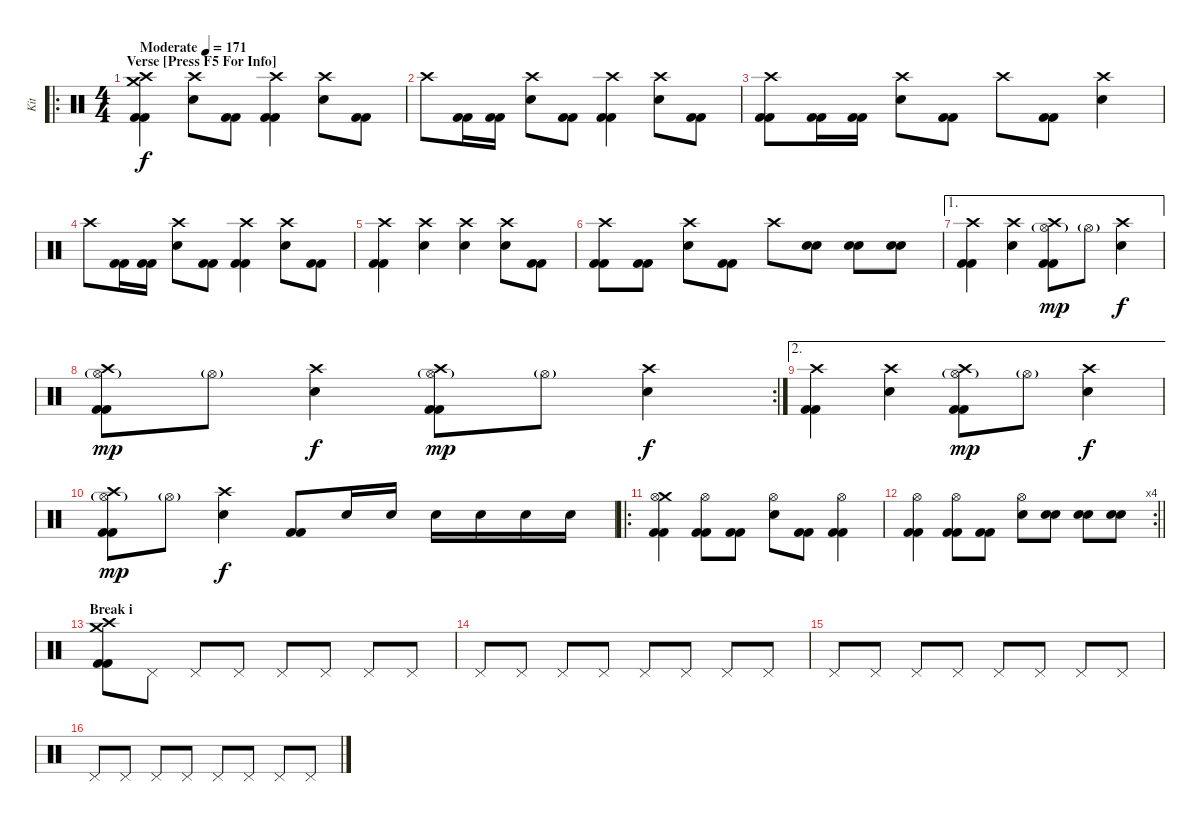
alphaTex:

\track ("Kit" "Kit") {instrument percussion}
\staff {score}
\articulation defaults
\ro
\ts (4 4)
\section ("" "Verse [Press F5 For Info]")
\tempo (171 "Moderate")
\clef neutral
\ks c
("Crash medium (hit)" "Crash high (hit)" "Kick (hit) 2" "Kick (hit) 2").4{dy f} ("Crash high (hit)" "Electric Snare (hit)").8 ("Kick (hit) 2" "Kick (hit) 2").8 ("Crash high (hit)" "Kick (hit) 2" "Kick (hit) 2").4 ("Crash high (hit)" "Electric Snare (hit)").8 ("Kick (hit) 2" "Kick (hit) 2").8 |
"Crash high (hit)".8 ("Kick (hit) 2" "Kick (hit) 2").16 ("Kick (hit) 2" "Kick (hit) 2").16 ("Crash high (hit)" "Electric Snare (hit)").8 ("Kick (hit) 2" "Kick (hit) 2").8 ("Crash high (hit)" "Kick (hit) 2" "Kick (hit) 2").4 ("Crash high (hit)" "Electric Snare (hit)").8 ("Kick (hit) 2" "Kick (hit) 2").8 |
("Crash high (hit)" "Kick (hit) 2" "Kick (hit) 2").8 ("Kick (hit) 2" "Kick (hit) 2").16 ("Kick (hit) 2" "Kick (hit) 2").16 ("Crash high (hit)" "Electric Snare (hit)").8 ("Kick (hit) 2" "Kick (hit) 2").8 "Crash high (hit)".8 ("Kick (hit) 2" "Kick (hit) 2").8 ("Crash high (hit)" "Electric Snare (hit)").4 |
"Crash high (hit)".8 ("Kick (hit) 2" "Kick (hit) 2").16 ("Kick (hit) 2" "Kick (hit) 2").16 ("Crash high (hit)" "Electric Snare (hit)").8 ("Kick (hit) 2" "Kick (hit) 2").8 ("Crash high (hit)" "Kick (hit) 2" "Kick (hit) 2").4 ("Crash high (hit)" "Electric Snare (hit)").8 ("Kick (hit) 2" "Kick (hit) 2").8 |
("Crash high (hit)" "Kick (hit) 2" "Kick (hit) 2").4 ("Crash high (hit)" "Electric Snare (hit)").4 ("Crash high (hit)" "Electric Snare (hit)").4 ("Crash high (hit)" "Electric Snare (hit)").8 ("Kick (hit) 2" "Kick (hit) 2").8 |
("Crash high (hit)" "Kick (hit) 2" "Kick (hit) 2").8 ("Kick (hit) 2" "Kick (hit) 2").8 ("Crash high (hit)" "Electric Snare (hit)").8 ("Kick (hit) 2" "Kick (hit) 2").8 "Crash high (hit)".8 ("Snare (hit) 2" "Electric Snare (hit)").8{bd 120} ("Snare (hit) 2" "Electric Snare (hit)").8{bd 120} ("Snare (hit) 2" "Electric Snare (hit)").8{bd 120} |
\ae 1
("Crash high (hit)" "Kick (hit) 2" "Kick (hit) 2").4 ("Crash high (hit)" "Electric Snare (hit)").4 ("Crash high (hit)" "Hi-Hat (open)"{g} "Kick (hit) 2" "Kick (hit) 2").8{dy mp} "Hi-Hat (open)"{g}.8 ("Crash high (hit)" "Electric Snare (hit)").4{dy f} |
\rc 2
("Crash high (hit)" "Hi-Hat (open)"{g} "Kick (hit) 2" "Kick (hit) 2").8{dy mp} "Hi-Hat (open)"{g}.8 ("Crash high (hit)" "Electric Snare (hit)").4{dy f} ("Crash high (hit)" "Hi-Hat (open)"{g} "Kick (hit) 2" "Kick (hit) 2").8{dy mp} "Hi-Hat (open)"{g}.8 ("Crash high (hit)" "Electric Snare (hit)").4{dy f} |
\ae 2
("Crash high (hit)" "Kick (hit) 2" "Kick (hit) 2").4 ("Crash high (hit)" "Electric Snare (hit)").4 ("Crash high (hit)" "Hi-Hat (open)"{g} "Kick (hit) 2" "Kick (hit) 2").8{dy mp} "Hi-Hat (open)"{g}.8 ("Crash high (hit)" "Electric Snare (hit)").4{dy f} |
("Crash high (hit)" "Hi-Hat (open)"{g} "Kick (hit) 2" "Kick (hit) 2").8{dy mp} "Hi-Hat (open)"{g}.8 ("Crash high (hit)" "Electric Snare (hit)").4{dy f} ("Kick (hit) 2" "Kick (hit) 2").8 "Electric Snare (hit)".16 "Electric Snare (hit)".16 "Electric Snare (hit)".16 "Electric Snare (hit)".16 "Electric Snare (hit)".16 "Electric Snare (hit)".16 |
\ro
("Crash medium (hit)" "Hi-Hat (open)" "Kick (hit) 2" "Kick (hit) 2").4 ("Hi-Hat (open)" "Kick (hit) 2" "Kick (hit) 2").8 ("Kick (hit) 2" "Kick (hit) 2").8 ("Hi-Hat (open)" "Electric Snare (hit)").8 ("Kick (hit) 2" "Kick (hit) 2").8 ("Hi-Hat (open)" "Kick (hit) 2" "Kick (hit) 2").4 |
\rc 4
\barLineRight lightlight
("Hi-Hat (open)" "Kick (hit) 2" "Kick (hit) 2").4 ("Hi-Hat (open)" "Kick (hit) 2" "Kick (hit) 2").8 ("Kick (hit) 2" "Kick (hit) 2").8 ("Hi-Hat (open)" "Electric Snare (hit)").8 ("Snare (hit) 2" "Electric Snare (hit)").8{bd 120} ("Snare (hit) 2" "Electric Snare (hit)").8{bd 120} ("Snare (hit) 2" "Electric Snare (hit)").8{bd 120} |
\section ("" "Break i")
("Crash medium (hit)" "Crash high (hit)" "Kick (hit) 2" "Kick (hit) 2").8 "Pedal Hi-Hat (hit)".8 "Pedal Hi-Hat (hit)".8 "Pedal Hi-Hat (hit)".8 "Pedal Hi-Hat (hit)".8 "Pedal Hi-Hat (hit)".8 "Pedal Hi-Hat (hit)".8 "Pedal Hi-Hat (hit)".8 |
"Pedal Hi-Hat (hit)".8 "Pedal Hi-Hat (hit)".8 "Pedal Hi-Hat (hit)".8 "Pedal Hi-Hat (hit)".8 "Pedal Hi-Hat (hit)".8 "Pedal Hi-Hat (hit)".8 "Pedal Hi-Hat (hit)".8 "Pedal Hi-Hat (hit)".8 |
"Pedal Hi-Hat (hit)".8 "Pedal Hi-Hat (hit)".8 "Pedal Hi-Hat (hit)".8 "Pedal Hi-Hat (hit)".8 "Pedal Hi-Hat (hit)".8 "Pedal Hi-Hat (hit)".8 "Pedal Hi-Hat (hit)".8 "Pedal Hi-Hat (hit)".8 |
"Pedal Hi-Hat (hit)".8 "Pedal Hi-Hat (hit)".8 "Pedal Hi-Hat (hit)".8 "Pedal Hi-Hat (hit)".8 "Pedal Hi-Hat (hit)".8 "Pedal Hi-Hat (hit)".8 "Pedal Hi-Hat (hit)".8 "Pedal Hi-Hat (hit)".8
